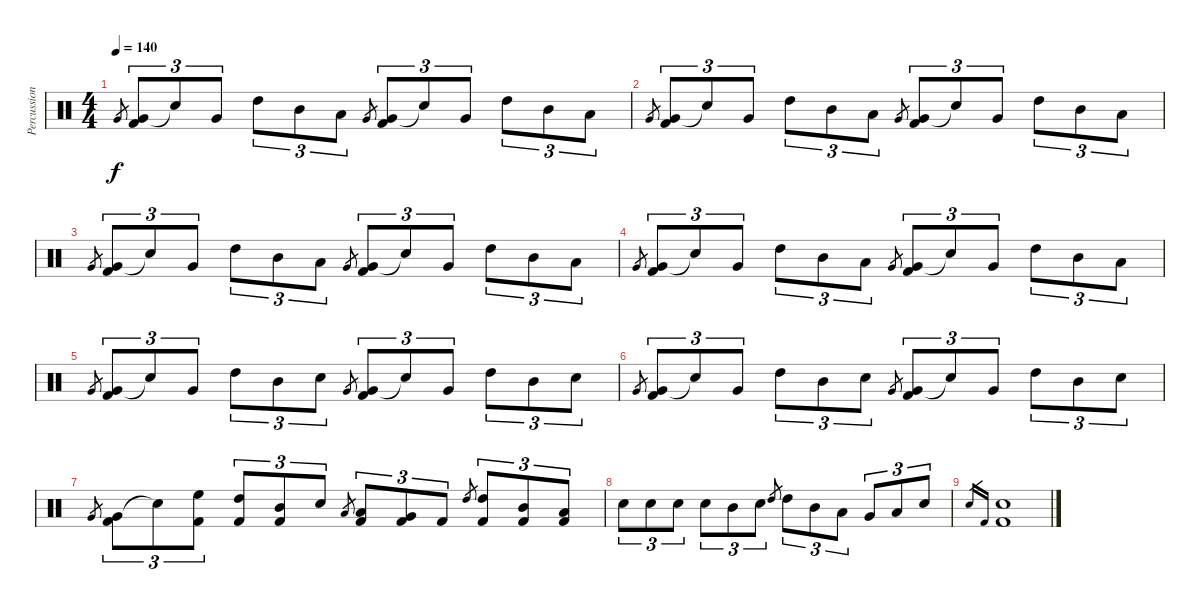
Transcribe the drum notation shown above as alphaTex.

\track ("Percussion" "Percussion") {instrument percussion}
\staff {score}
\articulation defaults
\ts (4 4)
\tempo 140
\clef neutral
\ks c "Very Low Tom (hit)".8{gr dy f}
("Very Low Tom (hit)" "Kick (hit) 2").8{tu (3 2)} "Snare (hit)"{t}.8{tu (3 2)} "Very Low Tom (hit)".8{tu (3 2)} "High Tom (hit)".8{tu (3 2)} "Mid Tom (hit)".8{tu (3 2)} "Low Tom (hit)".8{tu (3 2)} "Very Low Tom (hit)".8{gr} ("Very Low Tom (hit)" "Kick (hit) 2").8{tu (3 2)} "Snare (hit)"{t}.8{tu (3 2)} "Very Low Tom (hit)".8{tu (3 2)} "High Tom (hit)".8{tu (3 2)} "Mid Tom (hit)".8{tu (3 2)} "Low Tom (hit)".8{tu (3 2)} |
"Very Low Tom (hit)".8{gr} ("Very Low Tom (hit)" "Kick (hit) 2").8{tu (3 2)} "Snare (hit)"{t}.8{tu (3 2)} "Very Low Tom (hit)".8{tu (3 2)} "High Tom (hit)".8{tu (3 2)} "Mid Tom (hit)".8{tu (3 2)} "Low Tom (hit)".8{tu (3 2)} "Very Low Tom (hit)".8{gr} ("Very Low Tom (hit)" "Kick (hit) 2").8{tu (3 2)} "Snare (hit)"{t}.8{tu (3 2)} "Very Low Tom (hit)".8{tu (3 2)} "High Tom (hit)".8{tu (3 2)} "Mid Tom (hit)".8{tu (3 2)} "Low Tom (hit)".8{tu (3 2)} |
"Very Low Tom (hit)".8{gr} ("Very Low Tom (hit)" "Kick (hit) 2").8{tu (3 2)} "Snare (hit)"{t}.8{tu (3 2)} "Very Low Tom (hit)".8{tu (3 2)} "High Tom (hit)".8{tu (3 2)} "Mid Tom (hit)".8{tu (3 2)} "Low Tom (hit)".8{tu (3 2)} "Very Low Tom (hit)".8{gr} ("Very Low Tom (hit)" "Kick (hit) 2").8{tu (3 2)} "Snare (hit)"{t}.8{tu (3 2)} "Very Low Tom (hit)".8{tu (3 2)} "High Tom (hit)".8{tu (3 2)} "Mid Tom (hit)".8{tu (3 2)} "Low Tom (hit)".8{tu (3 2)} |
"Very Low Tom (hit)".8{gr} ("Very Low Tom (hit)" "Kick (hit) 2").8{tu (3 2)} "Snare (hit)"{t}.8{tu (3 2)} "Very Low Tom (hit)".8{tu (3 2)} "High Tom (hit)".8{tu (3 2)} "Mid Tom (hit)".8{tu (3 2)} "Low Tom (hit)".8{tu (3 2)} "Very Low Tom (hit)".8{gr} ("Very Low Tom (hit)" "Kick (hit) 2").8{tu (3 2)} "Snare (hit)"{t}.8{tu (3 2)} "Very Low Tom (hit)".8{tu (3 2)} "High Tom (hit)".8{tu (3 2)} "Mid Tom (hit)".8{tu (3 2)} "Low Tom (hit)".8{tu (3 2)} |
"Very Low Tom (hit)".8{gr} ("Very Low Tom (hit)" "Kick (hit) 2").8{tu (3 2)} "Snare (hit)"{t}.8{tu (3 2)} "Very Low Tom (hit)".8{tu (3 2)} "High Tom (hit)".8{tu (3 2)} "Mid Tom (hit)".8{tu (3 2)} "Electric Snare (hit)".8{tu (3 2)} "Very Low Tom (hit)".8{gr} ("Very Low Tom (hit)" "Kick (hit) 2").8{tu (3 2)} "Snare (hit)"{t}.8{tu (3 2)} "Very Low Tom (hit)".8{tu (3 2)} "High Tom (hit)".8{tu (3 2)} "Mid Tom (hit)".8{tu (3 2)} "Electric Snare (hit)".8{tu (3 2)} |
"Very Low Tom (hit)".8{gr} ("Very Low Tom (hit)" "Kick (hit) 2").8{tu (3 2)} "Snare (hit)"{t}.8{tu (3 2)} "Very Low Tom (hit)".8{tu (3 2)} "High Tom (hit)".8{tu (3 2)} "Mid Tom (hit)".8{tu (3 2)} "Electric Snare (hit)".8{tu (3 2)} "Very Low Tom (hit)".8{gr} ("Very Low Tom (hit)" "Kick (hit) 2").8{tu (3 2)} "Snare (hit)"{t}.8{tu (3 2)} "Very Low Tom (hit)".8{tu (3 2)} "High Tom (hit)".8{tu (3 2)} "Mid Tom (hit)".8{tu (3 2)} "Electric Snare (hit)".8{tu (3 2)} |
"Very Low Tom (hit)".8{gr} ("Very Low Tom (hit)" "Kick (hit) 2").8{tu (3 2)} "Snare (hit)"{t}.8{tu (3 2)} ("High Floor Tom (hit)" "Kick (hit) 2").8{tu (3 2)} ("High Tom (hit)" "Kick (hit) 2").8{tu (3 2)} ("Mid Tom (hit)" "Kick (hit) 2").8{tu (3 2)} "Electric Snare (hit)".8{tu (3 2)} "Low Tom (hit)".8{gr} ("Low Tom (hit)" "Kick (hit) 2").8{tu (3 2)} ("Very Low Tom (hit)" "Kick (hit) 2").8{tu (3 2)} "Kick (hit) 2".8{tu (3 2)} "High Tom (hit)".8{gr} ("High Tom (hit)" "Kick (hit) 2").8{tu (3 2)} ("Mid Tom (hit)" "Kick (hit) 2").8{tu (3 2)} ("Low Tom (hit)" "Kick (hit) 2").8{tu (3 2)} |
"Electric Snare (hit)".8{tu (3 2)} "Electric Snare (hit)".8{tu (3 2)} "Electric Snare (hit)".8{tu (3 2)} "Electric Snare (hit)".8{tu (3 2)} "Mid Tom (hit)".8{tu (3 2)} "Electric Snare (hit)".8{tu (3 2)} "High Tom (hit)".8{gr} "High Tom (hit)".8{tu (3 2)} "Mid Tom (hit)".8{tu (3 2)} "Low Tom (hit)".8{tu (3 2)} "Very Low Tom (hit)".8{tu (3 2)} "Low Floor Tom (hit)".8{tu (3 2)} "Electric Snare (hit)".8{tu (3 2)} |
"Electric Snare (hit)".16{gr} "Kick (hit) 2".16{gr} ("Electric Snare (hit)" "Kick (hit) 2").1
